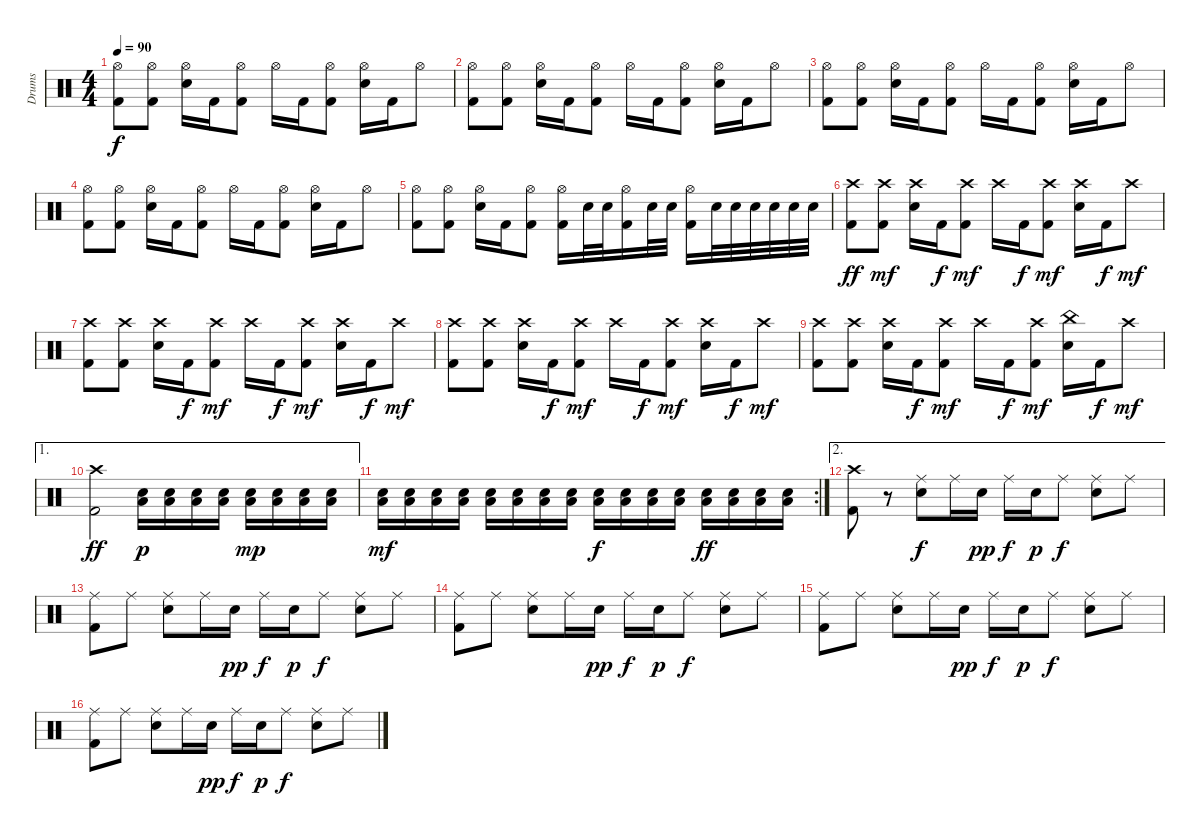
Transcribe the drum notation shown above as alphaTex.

\track ("Drums" "Drums") {instrument percussion}
\staff {score}
\articulation defaults
\ts (4 4)
\tempo 90
\clef neutral
\ks c
("Hi-Hat (open)" "Kick (hit) 2").8{dy f} ("Hi-Hat (open)" "Kick (hit) 2").8 ("Hi-Hat (open)" "Electric Snare (hit)").16 "Kick (hit) 2".16 ("Hi-Hat (open)" "Kick (hit) 2").8 "Hi-Hat (open)".16 "Kick (hit) 2".16 ("Hi-Hat (open)" "Kick (hit) 2").8 ("Hi-Hat (open)" "Electric Snare (hit)").16 "Kick (hit) 2".16 "Hi-Hat (open)".8 |
("Hi-Hat (open)" "Kick (hit) 2").8 ("Hi-Hat (open)" "Kick (hit) 2").8 ("Hi-Hat (open)" "Electric Snare (hit)").16 "Kick (hit) 2".16 ("Hi-Hat (open)" "Kick (hit) 2").8 "Hi-Hat (open)".16 "Kick (hit) 2".16 ("Hi-Hat (open)" "Kick (hit) 2").8 ("Hi-Hat (open)" "Electric Snare (hit)").16 "Kick (hit) 2".16 "Hi-Hat (open)".8 |
("Hi-Hat (open)" "Kick (hit) 2").8 ("Hi-Hat (open)" "Kick (hit) 2").8 ("Hi-Hat (open)" "Electric Snare (hit)").16 "Kick (hit) 2".16 ("Hi-Hat (open)" "Kick (hit) 2").8 "Hi-Hat (open)".16 "Kick (hit) 2".16 ("Hi-Hat (open)" "Kick (hit) 2").8 ("Hi-Hat (open)" "Electric Snare (hit)").16 "Kick (hit) 2".16 "Hi-Hat (open)".8 |
("Hi-Hat (open)" "Kick (hit) 2").8 ("Hi-Hat (open)" "Kick (hit) 2").8 ("Hi-Hat (open)" "Electric Snare (hit)").16 "Kick (hit) 2".16 ("Hi-Hat (open)" "Kick (hit) 2").8 "Hi-Hat (open)".16 "Kick (hit) 2".16 ("Hi-Hat (open)" "Kick (hit) 2").8 ("Hi-Hat (open)" "Electric Snare (hit)").16 "Kick (hit) 2".16 "Hi-Hat (open)".8 |
("Hi-Hat (open)" "Kick (hit) 2").8 ("Hi-Hat (open)" "Kick (hit) 2").8 ("Hi-Hat (open)" "Electric Snare (hit)").16 "Kick (hit) 2".16 ("Hi-Hat (open)" "Kick (hit) 2").8 ("Hi-Hat (open)" "Kick (hit) 2").16 "Electric Snare (hit)".32 "Electric Snare (hit)".32 ("Hi-Hat (open)" "Kick (hit) 2").16 "Electric Snare (hit)".32 "Electric Snare (hit)".32 ("Hi-Hat (open)" "Kick (hit) 2").16 "Electric Snare (hit)".32 "Electric Snare (hit)".32 "Electric Snare (hit)".32 "Electric Snare (hit)".32 "Electric Snare (hit)".32 "Electric Snare (hit)".32 |
("Crash high (hit)" "Kick (hit) 2").8{dy ff} ("Crash high (hit)" "Kick (hit) 2").8{dy mf} ("Crash high (hit)" "Electric Snare (hit)").16 "Kick (hit) 2".16{dy f} ("Crash high (hit)" "Kick (hit) 2").8{dy mf} "Crash high (hit)".16 "Kick (hit) 2".16{dy f} ("Crash high (hit)" "Kick (hit) 2").8{dy mf} ("Crash high (hit)" "Electric Snare (hit)").16 "Kick (hit) 2".16{dy f} "Crash high (hit)".8{dy mf} |
("Crash high (hit)" "Kick (hit) 2").8 ("Crash high (hit)" "Kick (hit) 2").8 ("Crash high (hit)" "Electric Snare (hit)").16 "Kick (hit) 2".16{dy f} ("Crash high (hit)" "Kick (hit) 2").8{dy mf} "Crash high (hit)".16 "Kick (hit) 2".16{dy f} ("Crash high (hit)" "Kick (hit) 2").8{dy mf} ("Crash high (hit)" "Electric Snare (hit)").16 "Kick (hit) 2".16{dy f} "Crash high (hit)".8{dy mf} |
("Crash high (hit)" "Kick (hit) 2").8 ("Crash high (hit)" "Kick (hit) 2").8 ("Crash high (hit)" "Electric Snare (hit)").16 "Kick (hit) 2".16{dy f} ("Crash high (hit)" "Kick (hit) 2").8{dy mf} "Crash high (hit)".16 "Kick (hit) 2".16{dy f} ("Crash high (hit)" "Kick (hit) 2").8{dy mf} ("Crash high (hit)" "Electric Snare (hit)").16 "Kick (hit) 2".16{dy f} "Crash high (hit)".8{dy mf} |
("Crash high (hit)" "Kick (hit) 2").8 ("Crash high (hit)" "Kick (hit) 2").8 ("Crash high (hit)" "Electric Snare (hit)").16 "Kick (hit) 2".16{dy f} ("Crash high (hit)" "Kick (hit) 2").8{dy mf} "Crash high (hit)".16 "Kick (hit) 2".16{dy f} ("Crash high (hit)" "Kick (hit) 2").8{dy mf} ("China (hit)" "Electric Snare (hit)").16 "Kick (hit) 2".16{dy f} "Crash high (hit)".8{dy mf} |
\ae 1
("Crash high (hit)" "Kick (hit) 2").2{dy ff} ("Electric Snare (hit)" "Low Tom (hit)").16{dy p} ("Electric Snare (hit)" "Low Tom (hit)").16 ("Electric Snare (hit)" "Low Tom (hit)").16 ("Electric Snare (hit)" "Low Tom (hit)").16 ("Electric Snare (hit)" "Low Tom (hit)").16{dy mp} ("Electric Snare (hit)" "Low Tom (hit)").16 ("Electric Snare (hit)" "Low Tom (hit)").16 ("Electric Snare (hit)" "Low Tom (hit)").16 |
\rc 2
("Electric Snare (hit)" "Low Tom (hit)").16{dy mf} ("Electric Snare (hit)" "Low Tom (hit)").16 ("Electric Snare (hit)" "Low Tom (hit)").16 ("Electric Snare (hit)" "Low Tom (hit)").16 ("Electric Snare (hit)" "Low Tom (hit)").16 ("Electric Snare (hit)" "Low Tom (hit)").16 ("Electric Snare (hit)" "Low Tom (hit)").16 ("Electric Snare (hit)" "Low Tom (hit)").16 ("Electric Snare (hit)" "Low Tom (hit)").16{dy f} ("Electric Snare (hit)" "Low Tom (hit)").16 ("Electric Snare (hit)" "Low Tom (hit)").16 ("Electric Snare (hit)" "Low Tom (hit)").16 ("Electric Snare (hit)" "Low Tom (hit)").16{dy ff} ("Electric Snare (hit)" "Low Tom (hit)").16 ("Electric Snare (hit)" "Low Tom (hit)").16 ("Electric Snare (hit)" "Low Tom (hit)").16 |
\ae 2
("Crash high (hit)" "Kick (hit) 2").8 r.8 ("Ride (middle)" "Electric Snare (hit)").8{dy f} "Ride (middle)".16 "Electric Snare (hit)".16{dy pp} "Ride (middle)".16{dy f} "Electric Snare (hit)".16{dy p} "Ride (middle)".8{dy f} ("Ride (middle)" "Electric Snare (hit)").8 "Ride (middle)".8 |
("Ride (middle)" "Kick (hit) 2").8 "Ride (middle)".8 ("Ride (middle)" "Electric Snare (hit)").8 "Ride (middle)".16 "Electric Snare (hit)".16{dy pp} "Ride (middle)".16{dy f} "Electric Snare (hit)".16{dy p} "Ride (middle)".8{dy f} ("Ride (middle)" "Electric Snare (hit)").8 "Ride (middle)".8 |
("Ride (middle)" "Kick (hit) 2").8 "Ride (middle)".8 ("Ride (middle)" "Electric Snare (hit)").8 "Ride (middle)".16 "Electric Snare (hit)".16{dy pp} "Ride (middle)".16{dy f} "Electric Snare (hit)".16{dy p} "Ride (middle)".8{dy f} ("Ride (middle)" "Electric Snare (hit)").8 "Ride (middle)".8 |
("Ride (middle)" "Kick (hit) 2").8 "Ride (middle)".8 ("Ride (middle)" "Electric Snare (hit)").8 "Ride (middle)".16 "Electric Snare (hit)".16{dy pp} "Ride (middle)".16{dy f} "Electric Snare (hit)".16{dy p} "Ride (middle)".8{dy f} ("Ride (middle)" "Electric Snare (hit)").8 "Ride (middle)".8 |
("Ride (middle)" "Kick (hit) 2").8 "Ride (middle)".8 ("Ride (middle)" "Electric Snare (hit)").8 "Ride (middle)".16 "Electric Snare (hit)".16{dy pp} "Ride (middle)".16{dy f} "Electric Snare (hit)".16{dy p} "Ride (middle)".8{dy f} ("Ride (middle)" "Electric Snare (hit)").8 "Ride (middle)".8
